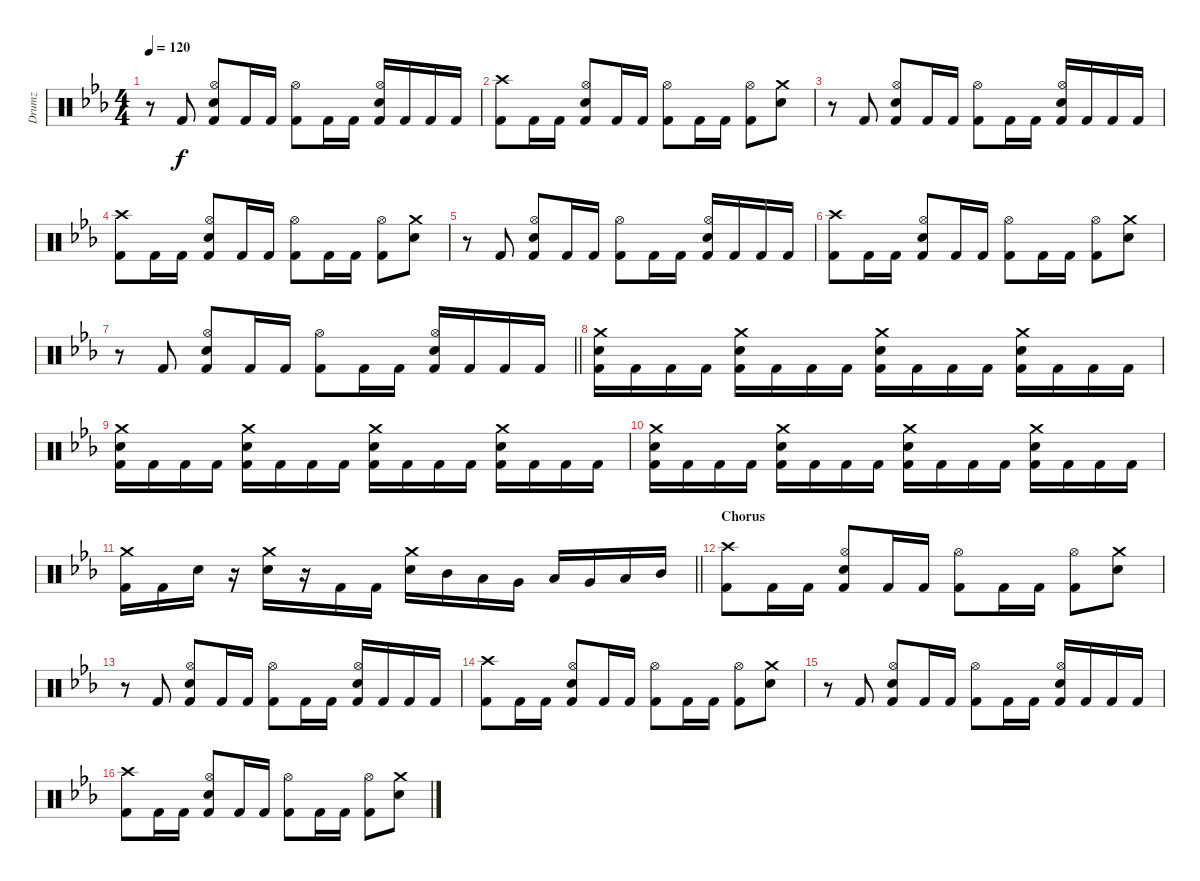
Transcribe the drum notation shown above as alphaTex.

\track ("Drumz" "Drumz") {instrument percussion}
\staff {score}
\articulation defaults
\ts (4 4)
\tempo 120
\clef neutral
\ks eb
r.8{dy f} "Kick (hit) 2".8 ("Hi-Hat (open)" "Electric Snare (hit)" "Kick (hit) 2").8 "Kick (hit) 2".16 "Kick (hit) 2".16 ("Hi-Hat (open)" "Kick (hit) 2").8 "Kick (hit) 2".16 "Kick (hit) 2".16 ("Hi-Hat (open)" "Electric Snare (hit)" "Kick (hit) 2").16 "Kick (hit) 2".16 "Kick (hit) 2".16 "Kick (hit) 2".16 |
("Crash high (hit)" "Kick (hit) 2").8 "Kick (hit) 2".16 "Kick (hit) 2".16 ("Hi-Hat (open)" "Electric Snare (hit)" "Kick (hit) 2").8 "Kick (hit) 2".16 "Kick (hit) 2".16 ("Hi-Hat (open)" "Kick (hit) 2").8 "Kick (hit) 2".16 "Kick (hit) 2".16 ("Hi-Hat (open)" "Kick (hit) 2").8 ("Crash medium (hit)" "Electric Snare (hit)").8 |
r.8 "Kick (hit) 2".8 ("Hi-Hat (open)" "Electric Snare (hit)" "Kick (hit) 2").8 "Kick (hit) 2".16 "Kick (hit) 2".16 ("Hi-Hat (open)" "Kick (hit) 2").8 "Kick (hit) 2".16 "Kick (hit) 2".16 ("Hi-Hat (open)" "Electric Snare (hit)" "Kick (hit) 2").16 "Kick (hit) 2".16 "Kick (hit) 2".16 "Kick (hit) 2".16 |
("Crash high (hit)" "Kick (hit) 2").8 "Kick (hit) 2".16 "Kick (hit) 2".16 ("Hi-Hat (open)" "Electric Snare (hit)" "Kick (hit) 2").8 "Kick (hit) 2".16 "Kick (hit) 2".16 ("Hi-Hat (open)" "Kick (hit) 2").8 "Kick (hit) 2".16 "Kick (hit) 2".16 ("Hi-Hat (open)" "Kick (hit) 2").8 ("Crash medium (hit)" "Electric Snare (hit)").8 |
r.8 "Kick (hit) 2".8 ("Hi-Hat (open)" "Electric Snare (hit)" "Kick (hit) 2").8 "Kick (hit) 2".16 "Kick (hit) 2".16 ("Hi-Hat (open)" "Kick (hit) 2").8 "Kick (hit) 2".16 "Kick (hit) 2".16 ("Hi-Hat (open)" "Electric Snare (hit)" "Kick (hit) 2").16 "Kick (hit) 2".16 "Kick (hit) 2".16 "Kick (hit) 2".16 |
("Crash high (hit)" "Kick (hit) 2").8 "Kick (hit) 2".16 "Kick (hit) 2".16 ("Hi-Hat (open)" "Electric Snare (hit)" "Kick (hit) 2").8 "Kick (hit) 2".16 "Kick (hit) 2".16 ("Hi-Hat (open)" "Kick (hit) 2").8 "Kick (hit) 2".16 "Kick (hit) 2".16 ("Hi-Hat (open)" "Kick (hit) 2").8 ("Crash medium (hit)" "Electric Snare (hit)").8 |
\barLineRight lightlight
r.8 "Kick (hit) 2".8 ("Hi-Hat (open)" "Electric Snare (hit)" "Kick (hit) 2").8 "Kick (hit) 2".16 "Kick (hit) 2".16 ("Hi-Hat (open)" "Kick (hit) 2").8 "Kick (hit) 2".16 "Kick (hit) 2".16 ("Hi-Hat (open)" "Electric Snare (hit)" "Kick (hit) 2").16 "Kick (hit) 2".16 "Kick (hit) 2".16 "Kick (hit) 2".16 |
\section ("" "")
("Crash medium (hit)" "Electric Snare (hit)" "Kick (hit) 2").16 "Kick (hit) 2".16 "Kick (hit) 2".16 "Kick (hit) 2".16 ("Crash medium (hit)" "Electric Snare (hit)" "Kick (hit) 2").16 "Kick (hit) 2".16 "Kick (hit) 2".16 "Kick (hit) 2".16 ("Crash medium (hit)" "Electric Snare (hit)" "Kick (hit) 2").16 "Kick (hit) 2".16 "Kick (hit) 2".16 "Kick (hit) 2".16 ("Crash medium (hit)" "Electric Snare (hit)" "Kick (hit) 2").16 "Kick (hit) 2".16 "Kick (hit) 2".16 "Kick (hit) 2".16 |
("Crash medium (hit)" "Electric Snare (hit)" "Kick (hit) 2").16 "Kick (hit) 2".16 "Kick (hit) 2".16 "Kick (hit) 2".16 ("Crash medium (hit)" "Electric Snare (hit)" "Kick (hit) 2").16 "Kick (hit) 2".16 "Kick (hit) 2".16 "Kick (hit) 2".16 ("Crash medium (hit)" "Electric Snare (hit)" "Kick (hit) 2").16 "Kick (hit) 2".16 "Kick (hit) 2".16 "Kick (hit) 2".16 ("Crash medium (hit)" "Electric Snare (hit)" "Kick (hit) 2").16 "Kick (hit) 2".16 "Kick (hit) 2".16 "Kick (hit) 2".16 |
("Crash medium (hit)" "Electric Snare (hit)" "Kick (hit) 2").16 "Kick (hit) 2".16 "Kick (hit) 2".16 "Kick (hit) 2".16 ("Crash medium (hit)" "Electric Snare (hit)" "Kick (hit) 2").16 "Kick (hit) 2".16 "Kick (hit) 2".16 "Kick (hit) 2".16 ("Crash medium (hit)" "Electric Snare (hit)" "Kick (hit) 2").16 "Kick (hit) 2".16 "Kick (hit) 2".16 "Kick (hit) 2".16 ("Crash medium (hit)" "Electric Snare (hit)" "Kick (hit) 2").16 "Kick (hit) 2".16 "Kick (hit) 2".16 "Kick (hit) 2".16 |
\barLineRight lightlight
("Crash medium (hit)" "Kick (hit) 2").16 "Kick (hit) 2".16 "Electric Snare (hit)".16 r.16 ("Crash medium (hit)" "Electric Snare (hit)").16 r.16 "Kick (hit) 2".16 "Kick (hit) 2".16 ("Crash medium (hit)" "Electric Snare (hit)").16 "Mid Tom (hit)".16 "Low Tom (hit)".16 "Very Low Tom (hit)".16 "Low Floor Tom (hit)".16 "Very Low Tom (hit)".16 "Low Tom (hit)".16 "Mid Tom (hit)".16 |
\section ("" "Chorus")
("Crash high (hit)" "Kick (hit) 2").8 "Kick (hit) 2".16 "Kick (hit) 2".16 ("Hi-Hat (open)" "Electric Snare (hit)" "Kick (hit) 2").8 "Kick (hit) 2".16 "Kick (hit) 2".16 ("Hi-Hat (open)" "Kick (hit) 2").8 "Kick (hit) 2".16 "Kick (hit) 2".16 ("Hi-Hat (open)" "Kick (hit) 2").8 ("Crash medium (hit)" "Electric Snare (hit)").8 |
r.8 "Kick (hit) 2".8 ("Hi-Hat (open)" "Electric Snare (hit)" "Kick (hit) 2").8 "Kick (hit) 2".16 "Kick (hit) 2".16 ("Hi-Hat (open)" "Kick (hit) 2").8 "Kick (hit) 2".16 "Kick (hit) 2".16 ("Hi-Hat (open)" "Electric Snare (hit)" "Kick (hit) 2").16 "Kick (hit) 2".16 "Kick (hit) 2".16 "Kick (hit) 2".16 |
("Crash high (hit)" "Kick (hit) 2").8 "Kick (hit) 2".16 "Kick (hit) 2".16 ("Hi-Hat (open)" "Electric Snare (hit)" "Kick (hit) 2").8 "Kick (hit) 2".16 "Kick (hit) 2".16 ("Hi-Hat (open)" "Kick (hit) 2").8 "Kick (hit) 2".16 "Kick (hit) 2".16 ("Hi-Hat (open)" "Kick (hit) 2").8 ("Crash medium (hit)" "Electric Snare (hit)").8 |
r.8 "Kick (hit) 2".8 ("Hi-Hat (open)" "Electric Snare (hit)" "Kick (hit) 2").8 "Kick (hit) 2".16 "Kick (hit) 2".16 ("Hi-Hat (open)" "Kick (hit) 2").8 "Kick (hit) 2".16 "Kick (hit) 2".16 ("Hi-Hat (open)" "Electric Snare (hit)" "Kick (hit) 2").16 "Kick (hit) 2".16 "Kick (hit) 2".16 "Kick (hit) 2".16 |
("Crash high (hit)" "Kick (hit) 2").8 "Kick (hit) 2".16 "Kick (hit) 2".16 ("Hi-Hat (open)" "Electric Snare (hit)" "Kick (hit) 2").8 "Kick (hit) 2".16 "Kick (hit) 2".16 ("Hi-Hat (open)" "Kick (hit) 2").8 "Kick (hit) 2".16 "Kick (hit) 2".16 ("Hi-Hat (open)" "Kick (hit) 2").8 ("Crash medium (hit)" "Electric Snare (hit)").8
